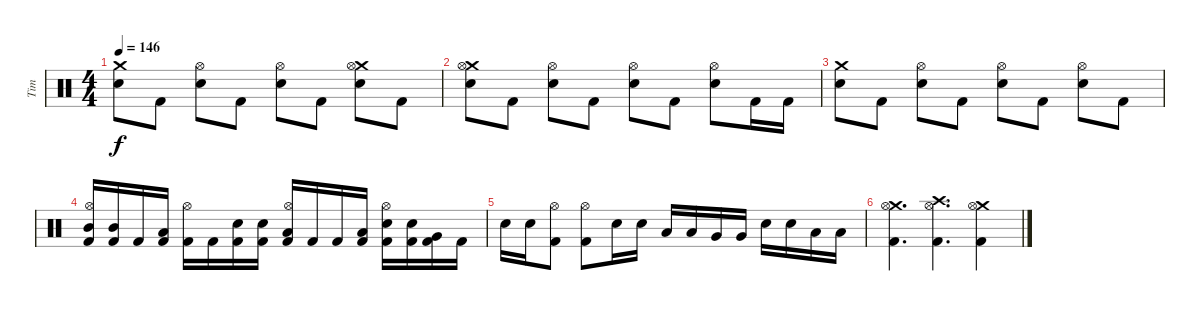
\track ("Tim" "Tim") {instrument percussion}
\staff {score}
\articulation defaults
\ts (4 4)
\tempo 146
\clef neutral
\ks c
("Crash medium (hit)" "Electric Snare (hit)").8{dy f} "Kick (hit) 2".8 ("Hi-Hat (open)" "Electric Snare (hit)").8 "Kick (hit) 2".8 ("Hi-Hat (open)" "Electric Snare (hit)").8 "Kick (hit) 2".8 ("Crash medium (hit)" "Hi-Hat (open)" "Electric Snare (hit)").8 "Kick (hit) 2".8 |
("Crash medium (hit)" "Hi-Hat (open)" "Electric Snare (hit)").8 "Kick (hit) 2".8 ("Hi-Hat (open)" "Electric Snare (hit)").8 "Kick (hit) 2".8 ("Hi-Hat (open)" "Electric Snare (hit)").8 "Kick (hit) 2".8 ("Hi-Hat (open)" "Electric Snare (hit)").8 "Kick (hit) 2".16 "Kick (hit) 2".16 |
("Crash medium (hit)" "Electric Snare (hit)").8 "Kick (hit) 2".8 ("Hi-Hat (open)" "Electric Snare (hit)").8 "Kick (hit) 2".8 ("Hi-Hat (open)" "Electric Snare (hit)").8 "Kick (hit) 2".8 ("Hi-Hat (open)" "Electric Snare (hit)").8 "Kick (hit) 2".8 |
("Hi-Hat (open)" "Mid Tom (hit)" "Kick (hit) 2").16 ("Mid Tom (hit)" "Kick (hit) 2").16 "Kick (hit) 2".16 ("Low Tom (hit)" "Kick (hit) 2").16 ("Hi-Hat (open)" "Kick (hit) 2").16 "Kick (hit) 2".16 ("Electric Snare (hit)" "Kick (hit) 2").16 ("Electric Snare (hit)" "Kick (hit) 2").16 ("Hi-Hat (open)" "Low Tom (hit)" "Kick (hit) 2").16 "Kick (hit) 2".16 "Kick (hit) 2".16 ("Low Tom (hit)" "Kick (hit) 2").16 ("Hi-Hat (open)" "Electric Snare (hit)" "Kick (hit) 2").16 ("Electric Snare (hit)" "Kick (hit) 2").16 ("Very Low Tom (hit)" "Kick (hit) 2").16 "Kick (hit) 2".16 |
"Electric Snare (hit)".16 "Electric Snare (hit)".16 ("Hi-Hat (open)" "Kick (hit) 2").8 ("Hi-Hat (open)" "Kick (hit) 2").8 "Electric Snare (hit)".16 "Electric Snare (hit)".16 "Low Tom (hit)".16 "Low Tom (hit)".16 "Very Low Tom (hit)".16 "Very Low Tom (hit)".16 "Electric Snare (hit)".16 "Electric Snare (hit)".16 "Low Tom (hit)".16 "Low Tom (hit)".16 |
("Crash medium (hit)" "Hi-Hat (open)" "Kick (hit) 2").4{d} ("Crash high (hit)" "Hi-Hat (open)" "Kick (hit) 2").4{d} ("Crash medium (hit)" "Hi-Hat (open)" "Kick (hit) 2").4
